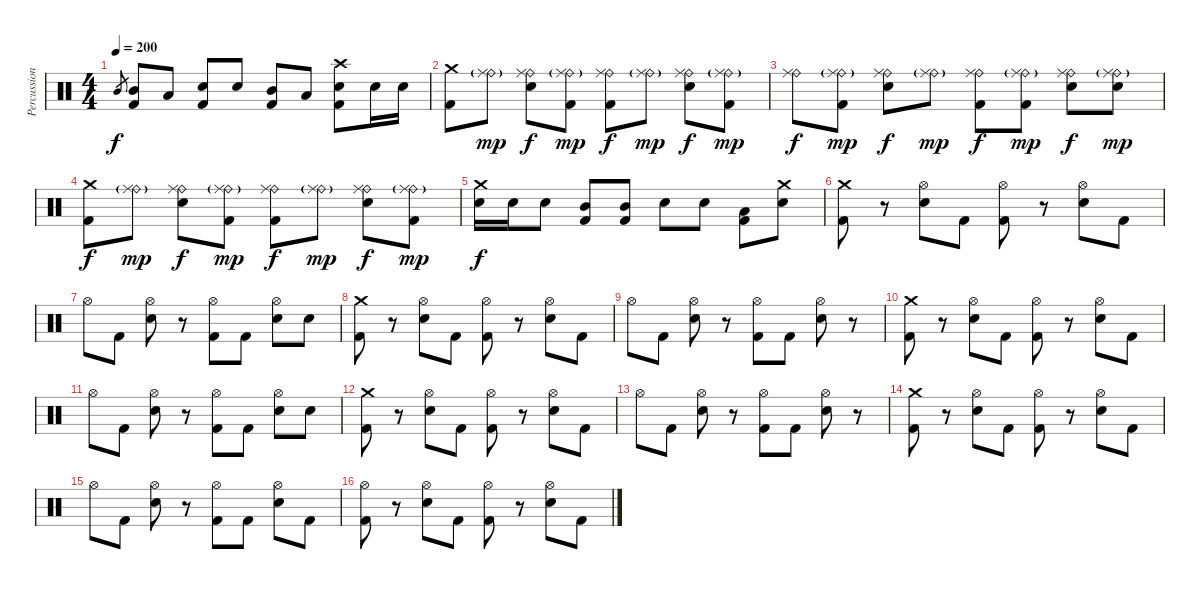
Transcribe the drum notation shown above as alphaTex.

\track ("Percussion" "Percussion") {instrument percussion}
\staff {score}
\articulation defaults
\ts (4 4)
\tempo 200
\clef neutral
\ks c "Mid Tom (hit)".8{gr dy f}
("Mid Tom (hit)" "Kick (hit) 2").8 "Low Tom (hit)".8 ("Electric Snare (hit)" "Kick (hit) 2").8 "Electric Snare (hit)".8 ("Mid Tom (hit)" "Kick (hit) 2").8 "Low Tom (hit)".8 ("Crash high (hit)" "Electric Snare (hit)" "Kick (hit) 2").8 "Electric Snare (hit)".16 "Electric Snare (hit)".16 |
("Crash medium (hit)" "Kick (hit) 2").8 ("Ride (bell)"{g} "Ride (middle)").8{dy mp} ("Ride (bell)" "Ride (middle)" "Electric Snare (hit)").8{dy f} ("Ride (bell)"{g} "Ride (middle)" "Kick (hit) 2").8{dy mp} ("Ride (bell)" "Ride (middle)" "Kick (hit) 2").8{dy f} ("Ride (bell)"{g} "Ride (middle)").8{dy mp} ("Ride (bell)" "Ride (middle)" "Electric Snare (hit)").8{dy f} ("Ride (bell)"{g} "Ride (middle)" "Kick (hit) 2").8{dy mp} |
("Ride (bell)" "Ride (middle)").8{dy f} ("Ride (bell)"{g} "Ride (middle)" "Kick (hit) 2").8{dy mp} ("Ride (bell)" "Ride (middle)" "Electric Snare (hit)").8{dy f} ("Ride (bell)"{g} "Ride (middle)").8{dy mp} ("Ride (bell)" "Ride (middle)" "Kick (hit) 2").8{dy f} ("Ride (bell)"{g} "Ride (middle)" "Kick (hit) 2").8{dy mp} ("Ride (bell)" "Ride (middle)" "Electric Snare (hit)").8{dy f} ("Ride (bell)"{g} "Ride (middle)" "Electric Snare (hit)").8{dy mp} |
("Crash medium (hit)" "Kick (hit) 2").8{dy f} ("Ride (bell)"{g} "Ride (middle)").8{dy mp} ("Ride (bell)" "Ride (middle)" "Electric Snare (hit)").8{dy f} ("Ride (bell)"{g} "Ride (middle)" "Kick (hit) 2").8{dy mp} ("Ride (bell)" "Ride (middle)" "Kick (hit) 2").8{dy f} ("Ride (bell)"{g} "Ride (middle)").8{dy mp} ("Ride (bell)" "Ride (middle)" "Electric Snare (hit)").8{dy f} ("Ride (bell)"{g} "Ride (middle)" "Kick (hit) 2").8{dy mp} |
("Crash medium (hit)" "Electric Snare (hit)").16{dy f} "Electric Snare (hit)".16 "Electric Snare (hit)".8 ("Mid Tom (hit)" "Kick (hit) 2").8 ("Mid Tom (hit)" "Kick (hit) 2").8 "Electric Snare (hit)".8 "Electric Snare (hit)".8 ("Low Tom (hit)" "Kick (hit) 2").8 ("Crash medium (hit)" "Electric Snare (hit)").8 |
("Crash medium (hit)" "Kick (hit) 2").8 r.8 ("Hi-Hat (open)" "Electric Snare (hit)").8 "Kick (hit) 2".8 ("Hi-Hat (open)" "Kick (hit) 2").8 r.8 ("Hi-Hat (open)" "Electric Snare (hit)").8 "Kick (hit) 2".8 |
"Hi-Hat (open)".8 "Kick (hit) 2".8 ("Hi-Hat (open)" "Electric Snare (hit)").8 r.8 ("Hi-Hat (open)" "Kick (hit) 2").8 "Kick (hit) 2".8 ("Hi-Hat (open)" "Electric Snare (hit)").8 "Electric Snare (hit)".8 |
("Crash medium (hit)" "Kick (hit) 2").8 r.8 ("Hi-Hat (open)" "Electric Snare (hit)").8 "Kick (hit) 2".8 ("Hi-Hat (open)" "Kick (hit) 2").8 r.8 ("Hi-Hat (open)" "Electric Snare (hit)").8 "Kick (hit) 2".8 |
"Hi-Hat (open)".8 "Kick (hit) 2".8 ("Hi-Hat (open)" "Electric Snare (hit)").8 r.8 ("Hi-Hat (open)" "Kick (hit) 2").8 "Kick (hit) 2".8 ("Hi-Hat (open)" "Electric Snare (hit)").8 r.8 |
("Crash medium (hit)" "Kick (hit) 2").8 r.8 ("Hi-Hat (open)" "Electric Snare (hit)").8 "Kick (hit) 2".8 ("Hi-Hat (open)" "Kick (hit) 2").8 r.8 ("Hi-Hat (open)" "Electric Snare (hit)").8 "Kick (hit) 2".8 |
"Hi-Hat (open)".8 "Kick (hit) 2".8 ("Hi-Hat (open)" "Electric Snare (hit)").8 r.8 ("Hi-Hat (open)" "Kick (hit) 2").8 "Kick (hit) 2".8 ("Hi-Hat (open)" "Electric Snare (hit)").8 "Electric Snare (hit)".8 |
("Crash medium (hit)" "Kick (hit) 2").8 r.8 ("Hi-Hat (open)" "Electric Snare (hit)").8 "Kick (hit) 2".8 ("Hi-Hat (open)" "Kick (hit) 2").8 r.8 ("Hi-Hat (open)" "Electric Snare (hit)").8 "Kick (hit) 2".8 |
"Hi-Hat (open)".8 "Kick (hit) 2".8 ("Hi-Hat (open)" "Electric Snare (hit)").8 r.8 ("Hi-Hat (open)" "Kick (hit) 2").8 "Kick (hit) 2".8 ("Hi-Hat (open)" "Electric Snare (hit)").8 r.8 |
("Crash medium (hit)" "Kick (hit) 2").8 r.8 ("Hi-Hat (open)" "Electric Snare (hit)").8 "Kick (hit) 2".8 ("Hi-Hat (open)" "Kick (hit) 2").8 r.8 ("Hi-Hat (open)" "Electric Snare (hit)").8 "Kick (hit) 2".8 |
"Hi-Hat (open)".8 "Kick (hit) 2".8 ("Hi-Hat (open)" "Electric Snare (hit)").8 r.8 ("Hi-Hat (open)" "Kick (hit) 2").8 "Kick (hit) 2".8 ("Hi-Hat (open)" "Electric Snare (hit)").8 "Kick (hit) 2".8 |
("Hi-Hat (open)" "Kick (hit) 2").8 r.8 ("Hi-Hat (open)" "Electric Snare (hit)").8 "Kick (hit) 2".8 ("Hi-Hat (open)" "Kick (hit) 2").8 r.8 ("Hi-Hat (open)" "Electric Snare (hit)").8 "Kick (hit) 2".8
